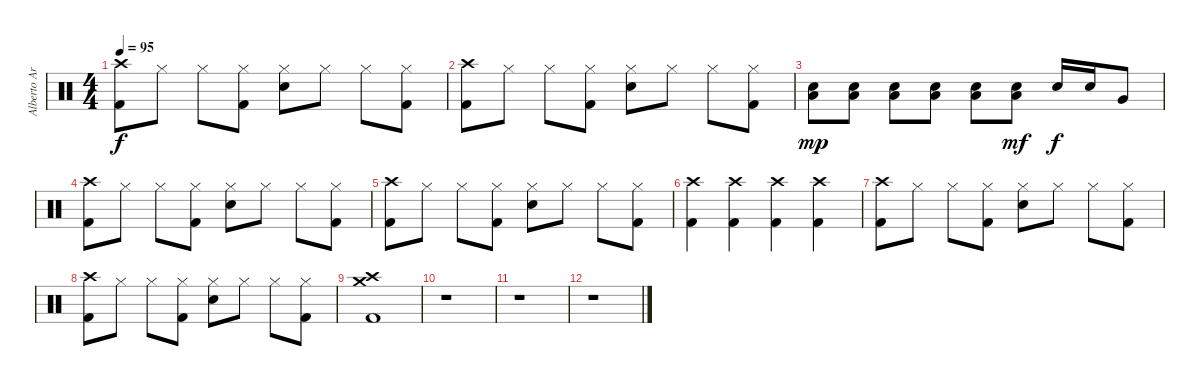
\track ("Alberto Ardines (Batería)" "Alberto Ar") {instrument percussion}
\staff {score}
\articulation defaults
\ts (4 4)
\tempo 95
\clef neutral
\ks c
("Crash high (hit)" "Kick (hit) 2").8{dy f} "Hi-Hat (closed)".8 "Hi-Hat (closed)".8 ("Hi-Hat (closed)" "Kick (hit) 2").8 ("Hi-Hat (closed)" "Electric Snare (hit)").8 "Hi-Hat (closed)".8 "Hi-Hat (closed)".8 ("Hi-Hat (closed)" "Kick (hit) 2").8 |
("Crash high (hit)" "Kick (hit) 2").8 "Hi-Hat (closed)".8 "Hi-Hat (closed)".8 ("Hi-Hat (closed)" "Kick (hit) 2").8 ("Hi-Hat (closed)" "Electric Snare (hit)").8 "Hi-Hat (closed)".8 "Hi-Hat (closed)".8 ("Hi-Hat (closed)" "Kick (hit) 2").8 |
("Electric Snare (hit)" "Low Floor Tom (hit)").8{dy mp} ("Electric Snare (hit)" "Low Floor Tom (hit)").8 ("Electric Snare (hit)" "Low Floor Tom (hit)").8 ("Electric Snare (hit)" "Low Floor Tom (hit)").8 ("Electric Snare (hit)" "Low Floor Tom (hit)").8 ("Electric Snare (hit)" "Low Floor Tom (hit)").8{dy mf} "Electric Snare (hit)".16{dy f} "Electric Snare (hit)".16 "Very Low Tom (hit)".8 |
("Crash high (hit)" "Kick (hit) 2").8 "Hi-Hat (closed)".8 "Hi-Hat (closed)".8 ("Hi-Hat (closed)" "Kick (hit) 2").8 ("Hi-Hat (closed)" "Electric Snare (hit)").8 "Hi-Hat (closed)".8 "Hi-Hat (closed)".8 ("Hi-Hat (closed)" "Kick (hit) 2").8 |
("Crash high (hit)" "Kick (hit) 2").8 "Hi-Hat (closed)".8 "Hi-Hat (closed)".8 ("Hi-Hat (closed)" "Kick (hit) 2").8 ("Hi-Hat (closed)" "Electric Snare (hit)").8 "Hi-Hat (closed)".8 "Hi-Hat (closed)".8 ("Hi-Hat (closed)" "Kick (hit) 2").8 |
("Crash high (hit)" "Kick (hit) 2").4 ("Crash high (hit)" "Kick (hit) 2").4 ("Crash high (hit)" "Kick (hit) 2").4 ("Crash high (hit)" "Kick (hit) 2").4 |
("Crash high (hit)" "Kick (hit) 2").8 "Hi-Hat (closed)".8 "Hi-Hat (closed)".8 ("Hi-Hat (closed)" "Kick (hit) 2").8 ("Hi-Hat (closed)" "Electric Snare (hit)").8 "Hi-Hat (closed)".8 "Hi-Hat (closed)".8 ("Hi-Hat (closed)" "Kick (hit) 2").8 |
("Crash high (hit)" "Kick (hit) 2").8 "Hi-Hat (closed)".8 "Hi-Hat (closed)".8 ("Hi-Hat (closed)" "Kick (hit) 2").8 ("Hi-Hat (closed)" "Electric Snare (hit)").8 "Hi-Hat (closed)".8 "Hi-Hat (closed)".8 ("Hi-Hat (closed)" "Kick (hit) 2").8 |
("Crash medium (hit)" "Crash high (hit)" "Kick (hit) 2").1 |
r.1 |
r.1 |
r.1
